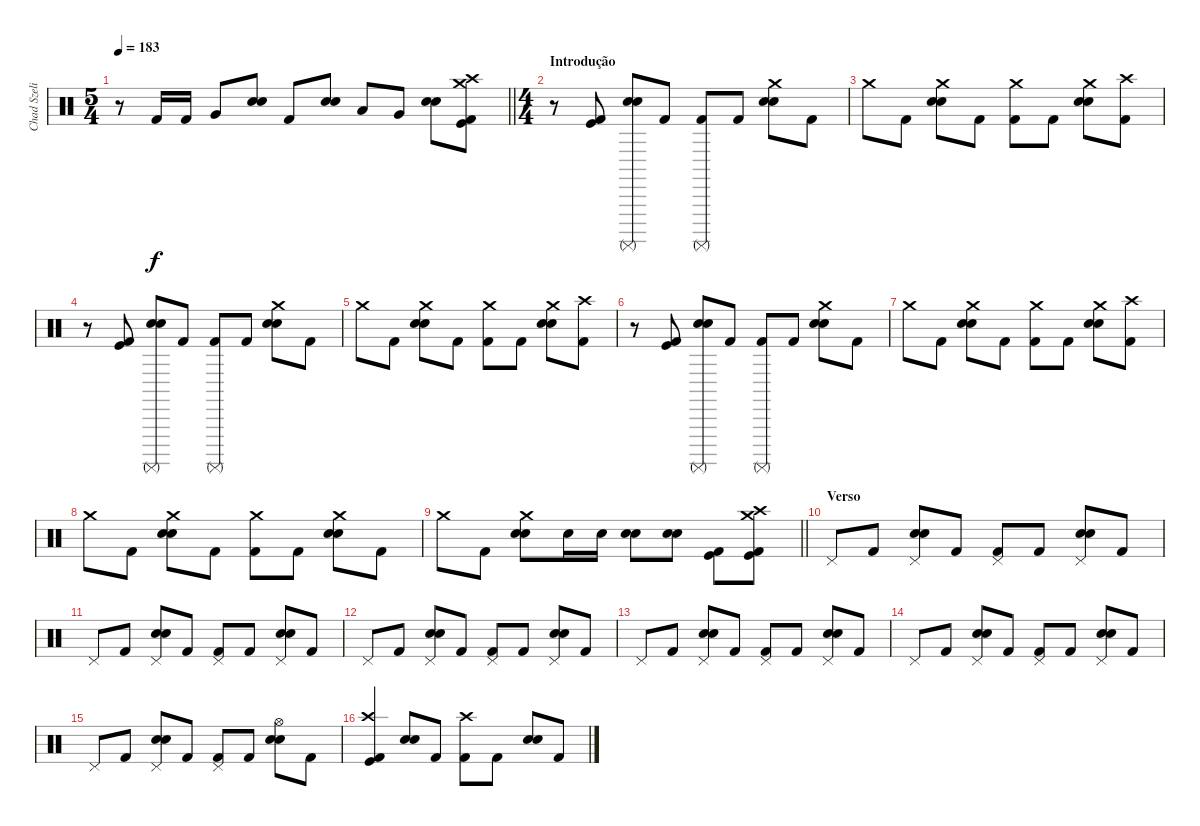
\track ("Chad Szeliga" "Chad Szeli") {instrument percussion}
\staff {score}
\articulation defaults
\ts (5 4)
\tempo 183
\clef neutral
\barLineRight lightlight
\ks c
r.8{dy f} "Kick (hit) 2".16 "Kick (hit) 2".16 "Very Low Tom (hit)".8 ("Snare (hit) 2" "Snare (hit) 2").8 "Kick (hit) 2".8 ("Snare (hit) 2" "Snare (hit) 2").8 "Low Tom (hit)".8 "Very Low Tom (hit)".8 ("Snare (hit) 2" "Snare (hit) 2").8 ("Crash high (hit)" "Kick (hit) 2" "Kick (hit)" "Crash medium (hit)").8 |
\ts (4 4)
\section ("" "Introdução")
r.8 ("Kick (hit) 2" "Kick (hit)").8 ("Surdo (mute)" "Snare (hit) 2" "Snare (hit) 2").8 "Kick (hit) 2".8 ("Surdo (mute)" "Kick (hit) 2").8 "Kick (hit) 2".8 ("Crash medium (hit)" "Snare (hit) 2" "Snare (hit) 2").8 "Kick (hit) 2".8 |
"Crash medium (hit)".8 "Kick (hit) 2".8 ("Crash medium (hit)" "Snare (hit) 2" "Snare (hit) 2").8 "Kick (hit) 2".8 ("Crash medium (hit)" "Kick (hit) 2").8 "Kick (hit) 2".8 ("Crash medium (hit)" "Snare (hit) 2" "Snare (hit) 2").8 ("Crash high (hit)" "Kick (hit) 2").8 |
r.8 ("Kick (hit) 2" "Kick (hit)").8 ("Surdo (mute)" "Snare (hit) 2" "Snare (hit) 2").8 "Kick (hit) 2".8 ("Surdo (mute)" "Kick (hit) 2").8 "Kick (hit) 2".8 ("Crash medium (hit)" "Snare (hit) 2" "Snare (hit) 2").8 "Kick (hit) 2".8 |
"Crash medium (hit)".8 "Kick (hit) 2".8 ("Crash medium (hit)" "Snare (hit) 2" "Snare (hit) 2").8 "Kick (hit) 2".8 ("Crash medium (hit)" "Kick (hit) 2").8 "Kick (hit) 2".8 ("Crash medium (hit)" "Snare (hit) 2" "Snare (hit) 2").8 ("Crash high (hit)" "Kick (hit) 2").8 |
r.8 ("Kick (hit) 2" "Kick (hit)").8 ("Surdo (mute)" "Snare (hit) 2" "Snare (hit) 2").8 "Kick (hit) 2".8 ("Surdo (mute)" "Kick (hit) 2").8 "Kick (hit) 2".8 ("Crash medium (hit)" "Snare (hit) 2" "Snare (hit) 2").8 "Kick (hit) 2".8 |
"Crash medium (hit)".8 "Kick (hit) 2".8 ("Crash medium (hit)" "Snare (hit) 2" "Snare (hit) 2").8 "Kick (hit) 2".8 ("Crash medium (hit)" "Kick (hit) 2").8 "Kick (hit) 2".8 ("Crash medium (hit)" "Snare (hit) 2" "Snare (hit) 2").8 ("Crash high (hit)" "Kick (hit) 2").8 |
"Crash medium (hit)".8 "Kick (hit) 2".8 ("Crash medium (hit)" "Snare (hit) 2" "Snare (hit) 2").8 "Kick (hit) 2".8 ("Crash medium (hit)" "Kick (hit) 2").8 "Kick (hit) 2".8 ("Crash medium (hit)" "Snare (hit) 2" "Snare (hit) 2").8 "Kick (hit) 2".8 |
\barLineRight lightlight "Crash medium (hit)".8 "Kick (hit) 2".8
("Crash medium (hit)" "Snare (hit) 2" "Snare (hit) 2").8 "Snare (hit) 2".16 "Snare (hit) 2".16 ("Snare (hit) 2" "Snare (hit) 2").8 ("Snare (hit) 2" "Snare (hit) 2").8 ("Kick (hit) 2" "Kick (hit)").8 ("Crash high (hit)" "Kick (hit) 2" "Kick (hit)" "Crash medium (hit)").8 |
\section ("" "Verso")
"Pedal Hi-Hat (hit)".8 "Kick (hit) 2".8 ("Snare (hit) 2" "Snare (hit) 2" "Pedal Hi-Hat (hit)").8 "Kick (hit) 2".8 ("Kick (hit) 2" "Pedal Hi-Hat (hit)").8 "Kick (hit) 2".8 ("Snare (hit) 2" "Snare (hit) 2" "Pedal Hi-Hat (hit)").8 "Kick (hit) 2".8 |
"Pedal Hi-Hat (hit)".8 "Kick (hit) 2".8 ("Snare (hit) 2" "Snare (hit) 2" "Pedal Hi-Hat (hit)").8 "Kick (hit) 2".8 ("Kick (hit) 2" "Pedal Hi-Hat (hit)").8 "Kick (hit) 2".8 ("Snare (hit) 2" "Snare (hit) 2" "Pedal Hi-Hat (hit)").8 "Kick (hit) 2".8 |
"Pedal Hi-Hat (hit)".8 "Kick (hit) 2".8 ("Snare (hit) 2" "Snare (hit) 2" "Pedal Hi-Hat (hit)").8 "Kick (hit) 2".8 ("Kick (hit) 2" "Pedal Hi-Hat (hit)").8 "Kick (hit) 2".8 ("Snare (hit) 2" "Snare (hit) 2" "Pedal Hi-Hat (hit)").8 "Kick (hit) 2".8 |
"Pedal Hi-Hat (hit)".8 "Kick (hit) 2".8 ("Snare (hit) 2" "Snare (hit) 2" "Pedal Hi-Hat (hit)").8 "Kick (hit) 2".8 ("Kick (hit) 2" "Pedal Hi-Hat (hit)").8 "Kick (hit) 2".8 ("Snare (hit) 2" "Snare (hit) 2" "Pedal Hi-Hat (hit)").8 "Kick (hit) 2".8 |
"Pedal Hi-Hat (hit)".8 "Kick (hit) 2".8 ("Snare (hit) 2" "Snare (hit) 2" "Pedal Hi-Hat (hit)").8 "Kick (hit) 2".8 ("Kick (hit) 2" "Pedal Hi-Hat (hit)").8 "Kick (hit) 2".8 ("Snare (hit) 2" "Snare (hit) 2" "Pedal Hi-Hat (hit)").8 "Kick (hit) 2".8 |
"Pedal Hi-Hat (hit)".8 "Kick (hit) 2".8 ("Snare (hit) 2" "Snare (hit) 2" "Pedal Hi-Hat (hit)").8 "Kick (hit) 2".8 ("Kick (hit) 2" "Pedal Hi-Hat (hit)").8 "Kick (hit) 2".8 ("Snare (hit) 2" "Snare (hit) 2" "Hi-Hat (open)").8 "Kick (hit) 2".8 |
("Crash high (hit)" "Kick (hit) 2" "Kick (hit)").4 ("Snare (hit) 2" "Snare (hit) 2").8 "Kick (hit) 2".8 ("Crash high (hit)" "Kick (hit) 2").8 "Kick (hit) 2".8 ("Snare (hit) 2" "Snare (hit) 2").8 "Kick (hit) 2".8
